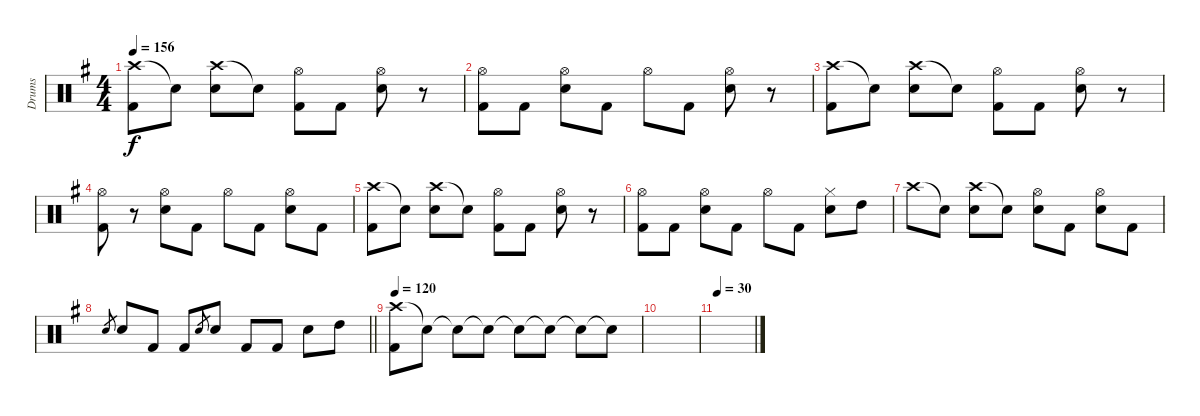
\track ("Drums" "Drums") {instrument percussion}
\staff {score}
\articulation defaults
\ts (4 4)
\tempo 156
\clef neutral
\ks g
("Crash high (hit)" "Kick (hit) 2").8{dy f} "Snare (hit)"{t}.8 ("Crash high (hit)" "Snare (hit) 2").8 "Snare (hit)"{t}.8 ("Hi-Hat (open)" "Kick (hit) 2").8 "Kick (hit) 2".8 ("Hi-Hat (open)" "Snare (hit) 2").8 r.8 |
("Hi-Hat (open)" "Kick (hit) 2").8 "Kick (hit) 2".8 ("Hi-Hat (open)" "Snare (hit) 2").8 "Kick (hit) 2".8 "Hi-Hat (open)".8 "Kick (hit) 2".8 ("Hi-Hat (open)" "Snare (hit) 2").8 r.8 |
("Crash high (hit)" "Kick (hit) 2").8 "Snare (hit)"{t}.8 ("Crash high (hit)" "Snare (hit) 2").8 "Snare (hit)"{t}.8 ("Hi-Hat (open)" "Kick (hit) 2").8 "Kick (hit) 2".8 ("Hi-Hat (open)" "Snare (hit) 2").8 r.8 |
("Hi-Hat (open)" "Kick (hit) 2").8 r.8 ("Hi-Hat (open)" "Snare (hit) 2").8 "Kick (hit) 2".8 "Hi-Hat (open)".8 "Kick (hit) 2".8 ("Hi-Hat (open)" "Snare (hit) 2").8 "Kick (hit) 2".8 |
("Crash high (hit)" "Kick (hit) 2").8 "Snare (hit)"{t}.8 ("Crash high (hit)" "Snare (hit) 2").8 "Snare (hit)"{t}.8 ("Hi-Hat (open)" "Kick (hit) 2").8 "Kick (hit) 2".8 ("Hi-Hat (open)" "Snare (hit) 2").8 r.8 |
("Hi-Hat (open)" "Kick (hit) 2").8 "Kick (hit) 2".8 ("Hi-Hat (open)" "Snare (hit) 2").8 "Kick (hit) 2".8 "Hi-Hat (open)".8 "Kick (hit) 2".8 ("Hi-Hat (closed)" "Snare (hit) 2").8 "High Tom (hit)".8 |
"Crash high (hit)".8 "Snare (hit)"{t}.8 ("Crash high (hit)" "Snare (hit) 2").8 "Snare (hit)"{t}.8 ("Hi-Hat (open)" "Snare (hit) 2").8 "Kick (hit) 2".8 ("Hi-Hat (open)" "Snare (hit) 2").8 "Kick (hit) 2".8 |
\barLineRight lightlight "Snare (hit) 2".8{gr} "Snare (hit) 2".8 "Kick (hit) 2".8 "Kick (hit) 2".8 "Snare (hit) 2".8{gr} "Snare (hit) 2".8 "Kick (hit) 2".8 "Kick (hit) 2".8 "Snare (hit) 2".8 "High Tom (hit)".8
|
\tempo 120
("Crash high (hit)" "Kick (hit) 2").8 "Snare (hit)"{t}.8 "Snare (hit)"{t}.8 "Snare (hit)"{t}.8 "Snare (hit)"{t}.8 "Snare (hit)"{t}.8 "Snare (hit)"{t}.8 "Snare (hit)"{t}.8 |
|
\tempo 30
